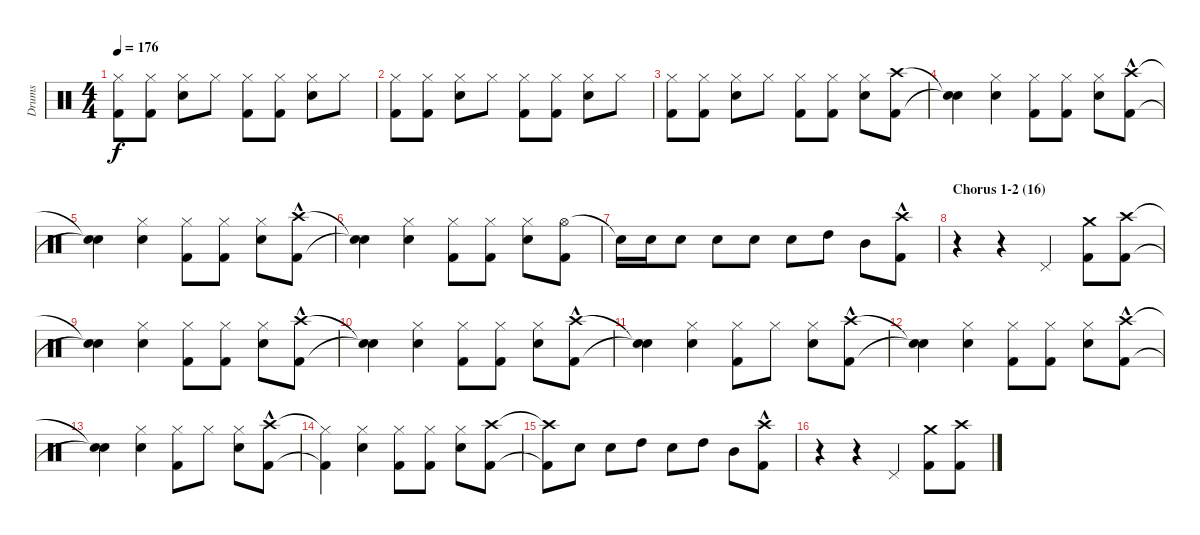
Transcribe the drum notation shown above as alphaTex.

\track ("Drums" "Drums") {instrument percussion}
\staff {score}
\articulation defaults
\ts (4 4)
\tempo 176
\clef neutral
\ks c
("Hi-Hat (closed)" "Kick (hit) 2").8{dy f} ("Hi-Hat (closed)" "Kick (hit) 2").8 ("Hi-Hat (closed)" "Snare (hit) 2").8 "Hi-Hat (closed)".8 ("Hi-Hat (closed)" "Kick (hit) 2").8 ("Hi-Hat (closed)" "Kick (hit) 2").8 ("Hi-Hat (closed)" "Snare (hit) 2").8 "Hi-Hat (closed)".8 |
("Hi-Hat (closed)" "Kick (hit) 2").8 ("Hi-Hat (closed)" "Kick (hit) 2").8 ("Hi-Hat (closed)" "Snare (hit) 2").8 "Hi-Hat (closed)".8 ("Hi-Hat (closed)" "Kick (hit) 2").8 ("Hi-Hat (closed)" "Kick (hit) 2").8 ("Hi-Hat (closed)" "Snare (hit) 2").8 "Hi-Hat (closed)".8 |
("Hi-Hat (closed)" "Kick (hit) 2").8 ("Hi-Hat (closed)" "Kick (hit) 2").8 ("Hi-Hat (closed)" "Snare (hit) 2").8 "Hi-Hat (closed)".8 ("Hi-Hat (closed)" "Kick (hit) 2").8 ("Hi-Hat (closed)" "Kick (hit) 2").8 ("Hi-Hat (closed)" "Snare (hit) 2").8 ("Crash high (hit)" "Kick (hit) 2").8 |
("Snare (hit)"{t} "Snare (hit)"{t}).4 ("Hi-Hat (closed)" "Snare (hit) 2").4 ("Hi-Hat (closed)" "Kick (hit) 2").8 ("Hi-Hat (closed)" "Kick (hit) 2").8 ("Hi-Hat (closed)" "Snare (hit) 2").8 ("Crash high (hit)"{hac} "Kick (hit) 2").8 |
("Snare (hit)"{t} "Snare (hit)"{t}).4 ("Hi-Hat (closed)" "Snare (hit) 2").4 ("Hi-Hat (closed)" "Kick (hit) 2").8 ("Hi-Hat (closed)" "Kick (hit) 2").8 ("Hi-Hat (closed)" "Snare (hit) 2").8 ("Crash high (hit)"{hac} "Kick (hit) 2").8 |
("Snare (hit)"{t} "Snare (hit)"{t}).4 ("Hi-Hat (closed)" "Snare (hit) 2").4 ("Hi-Hat (closed)" "Kick (hit) 2").8 ("Hi-Hat (closed)" "Kick (hit) 2").8 ("Hi-Hat (closed)" "Snare (hit) 2").8 ("Hi-Hat (open)" "Kick (hit) 2").8 |
"Snare (hit)"{t}.16 "Snare (hit) 2".16 "Snare (hit) 2".8 "Snare (hit) 2".8 "Snare (hit) 2".8 "Snare (hit) 2".8 "High Tom (hit)".8 "Mid Tom (hit)".8 ("Crash high (hit)"{hac} "Kick (hit) 2").8 |
\section ("" "Chorus 1-2 (16)")
r.4 r.4 "Pedal Hi-Hat (hit)".4 ("Crash medium (hit)" "Kick (hit) 2").8 ("Crash high (hit)" "Kick (hit) 2").8 |
("Snare (hit)"{t} "Snare (hit)"{t}).4 ("Hi-Hat (closed)" "Snare (hit) 2").4 ("Hi-Hat (closed)" "Kick (hit) 2").8 ("Hi-Hat (closed)" "Kick (hit) 2").8 ("Hi-Hat (closed)" "Snare (hit) 2").8 ("Crash high (hit)"{hac} "Kick (hit) 2").8 |
("Snare (hit)"{t} "Snare (hit)"{t}).4 ("Hi-Hat (closed)" "Snare (hit) 2").4 ("Hi-Hat (closed)" "Kick (hit) 2").8 ("Hi-Hat (closed)" "Kick (hit) 2").8 ("Hi-Hat (closed)" "Snare (hit) 2").8 ("Crash high (hit)"{hac} "Kick (hit) 2").8 |
("Snare (hit)"{t} "Snare (hit)"{t}).4 ("Hi-Hat (closed)" "Snare (hit) 2").4 ("Hi-Hat (closed)" "Kick (hit) 2").8 "Hi-Hat (closed)".8 ("Hi-Hat (closed)" "Snare (hit) 2").8 ("Crash high (hit)"{hac} "Kick (hit) 2").8 |
("Snare (hit)"{t} "Snare (hit)"{t}).4 ("Hi-Hat (closed)" "Snare (hit) 2").4 ("Hi-Hat (closed)" "Kick (hit) 2").8 ("Hi-Hat (closed)" "Kick (hit) 2").8 ("Hi-Hat (closed)" "Snare (hit) 2").8 ("Crash high (hit)"{hac} "Kick (hit) 2").8 |
("Snare (hit)"{t} "Snare (hit)"{t}).4 ("Hi-Hat (closed)" "Snare (hit) 2").4 ("Hi-Hat (closed)" "Kick (hit) 2").8 "Hi-Hat (closed)".8 ("Hi-Hat (closed)" "Snare (hit) 2").8 ("Crash high (hit)"{hac} "Kick (hit) 2").8 |
("Hi-Hat (closed)"{t} "Kick (hit) 2"{t}).4 ("Hi-Hat (closed)" "Snare (hit) 2").4 ("Hi-Hat (closed)" "Kick (hit) 2").8 ("Hi-Hat (closed)" "Kick (hit) 2").8 ("Hi-Hat (closed)" "Snare (hit) 2").8 ("Crash high (hit)" "Kick (hit) 2").8 |
("Crash high (hit)"{t} "Kick (hit) 2"{t}).8 "Snare (hit) 2".8 "Snare (hit) 2".8 "High Tom (hit)".8 "Snare (hit) 2".8 "High Tom (hit)".8 "Mid Tom (hit)".8 ("Crash high (hit)"{hac} "Kick (hit) 2").8 |
r.4 r.4 "Pedal Hi-Hat (hit)".4 ("Crash medium (hit)" "Kick (hit) 2").8 ("Crash high (hit)" "Kick (hit) 2").8
